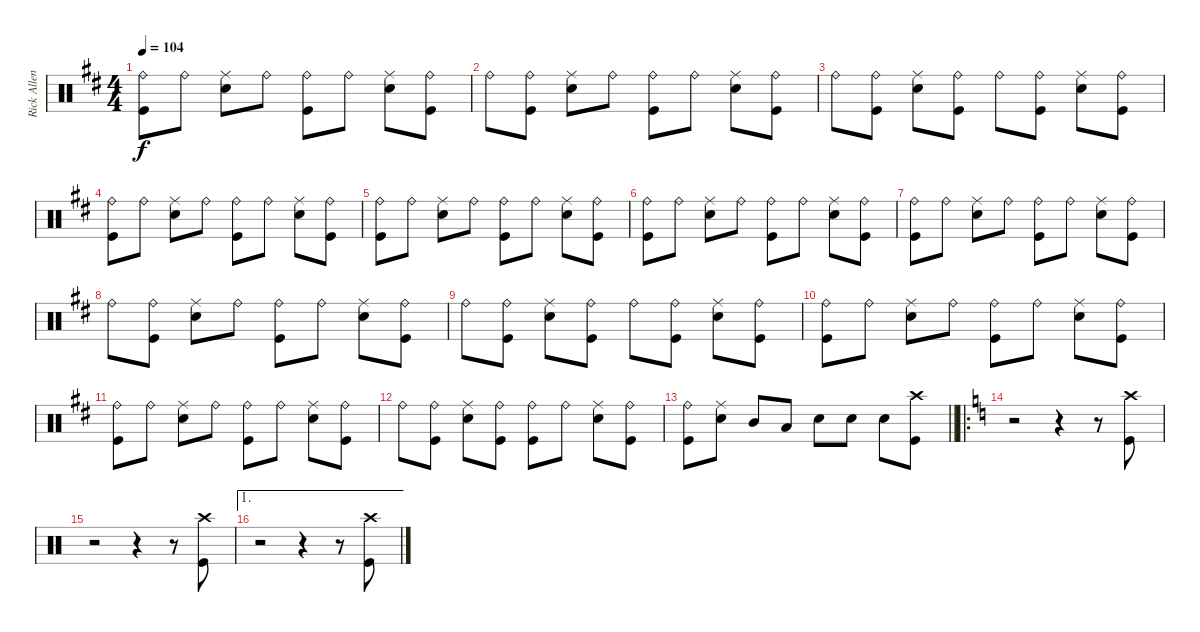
\track ("Rick Allen" "Rick Allen") {instrument percussion}
\staff {score}
\articulation defaults
\ts (4 4)
\tempo 104
\clef neutral
\ks bminor
("Ride (bell)" "Kick (hit)").8{dy f} "Ride (bell)".8 ("Ride (middle)" "Snare (hit) 2").8 "Ride (bell)".8 ("Ride (bell)" "Kick (hit)").8 "Ride (bell)".8 ("Ride (middle)" "Snare (hit) 2").8 ("Ride (bell)" "Kick (hit)").8 |
"Ride (bell)".8 ("Ride (bell)" "Kick (hit)").8 ("Ride (middle)" "Snare (hit) 2").8 "Ride (bell)".8 ("Ride (bell)" "Kick (hit)").8 "Ride (bell)".8 ("Ride (middle)" "Snare (hit) 2").8 ("Ride (bell)" "Kick (hit)").8 |
"Ride (bell)".8 ("Ride (bell)" "Kick (hit)").8 ("Ride (middle)" "Snare (hit) 2").8 ("Ride (bell)" "Kick (hit)").8 "Ride (bell)".8 ("Ride (bell)" "Kick (hit)").8 ("Ride (middle)" "Snare (hit) 2").8 ("Ride (bell)" "Kick (hit)").8 |
("Ride (bell)" "Kick (hit)").8 "Ride (bell)".8 ("Ride (middle)" "Snare (hit) 2").8 "Ride (bell)".8 ("Ride (bell)" "Kick (hit)").8 "Ride (bell)".8 ("Ride (middle)" "Snare (hit) 2").8 ("Ride (bell)" "Kick (hit)").8 |
("Ride (bell)" "Kick (hit)").8 "Ride (bell)".8 ("Ride (middle)" "Snare (hit) 2").8 "Ride (bell)".8 ("Ride (bell)" "Kick (hit)").8 "Ride (bell)".8 ("Ride (middle)" "Snare (hit) 2").8 ("Ride (bell)" "Kick (hit)").8 |
("Ride (bell)" "Kick (hit)").8 "Ride (bell)".8 ("Ride (middle)" "Snare (hit) 2").8 "Ride (bell)".8 ("Ride (bell)" "Kick (hit)").8 "Ride (bell)".8 ("Ride (middle)" "Snare (hit) 2").8 ("Ride (bell)" "Kick (hit)").8 |
("Ride (bell)" "Kick (hit)").8 "Ride (bell)".8 ("Ride (middle)" "Snare (hit) 2").8 "Ride (bell)".8 ("Ride (bell)" "Kick (hit)").8 "Ride (bell)".8 ("Ride (middle)" "Snare (hit) 2").8 ("Ride (bell)" "Kick (hit)").8 |
"Ride (bell)".8 ("Ride (bell)" "Kick (hit)").8 ("Ride (middle)" "Snare (hit) 2").8 "Ride (bell)".8 ("Ride (bell)" "Kick (hit)").8 "Ride (bell)".8 ("Ride (middle)" "Snare (hit) 2").8 ("Ride (bell)" "Kick (hit)").8 |
"Ride (bell)".8 ("Ride (bell)" "Kick (hit)").8 ("Ride (middle)" "Snare (hit) 2").8 ("Ride (bell)" "Kick (hit)").8 "Ride (bell)".8 ("Ride (bell)" "Kick (hit)").8 ("Ride (middle)" "Snare (hit) 2").8 ("Ride (bell)" "Kick (hit)").8 |
("Ride (bell)" "Kick (hit)").8 "Ride (bell)".8 ("Ride (middle)" "Snare (hit) 2").8 "Ride (bell)".8 ("Ride (bell)" "Kick (hit)").8 "Ride (bell)".8 ("Ride (middle)" "Snare (hit) 2").8 ("Ride (bell)" "Kick (hit)").8 |
("Ride (bell)" "Kick (hit)").8 "Ride (bell)".8 ("Ride (middle)" "Snare (hit) 2").8 "Ride (bell)".8 ("Ride (bell)" "Kick (hit)").8 "Ride (bell)".8 ("Ride (middle)" "Snare (hit) 2").8 ("Ride (bell)" "Kick (hit)").8 |
"Ride (bell)".8 ("Ride (bell)" "Kick (hit)").8 ("Ride (middle)" "Snare (hit) 2").8 ("Ride (bell)" "Kick (hit)").8 ("Ride (bell)" "Kick (hit)").8 "Ride (bell)".8 ("Ride (middle)" "Snare (hit) 2").8 ("Ride (bell)" "Kick (hit)").8 |
\barLineRight lightlight
("Ride (bell)" "Kick (hit)").8 ("Ride (middle)" "Snare (hit) 2").8 "Mid Tom (hit)".8 "Low Tom (hit)".8 "Snare (hit) 2".8 "Snare (hit) 2".8 "Snare (hit) 2".8 ("Crash high (hit)" "Kick (hit)").8 |
\ro
\ks aminor
r.2 r.4 r.8 ("Crash high (hit)" "Kick (hit)").8 |
r.2 r.4 r.8 ("Crash high (hit)" "Kick (hit)").8 |
\ae 1
r.2 r.4 r.8 ("Crash high (hit)" "Kick (hit)").8
